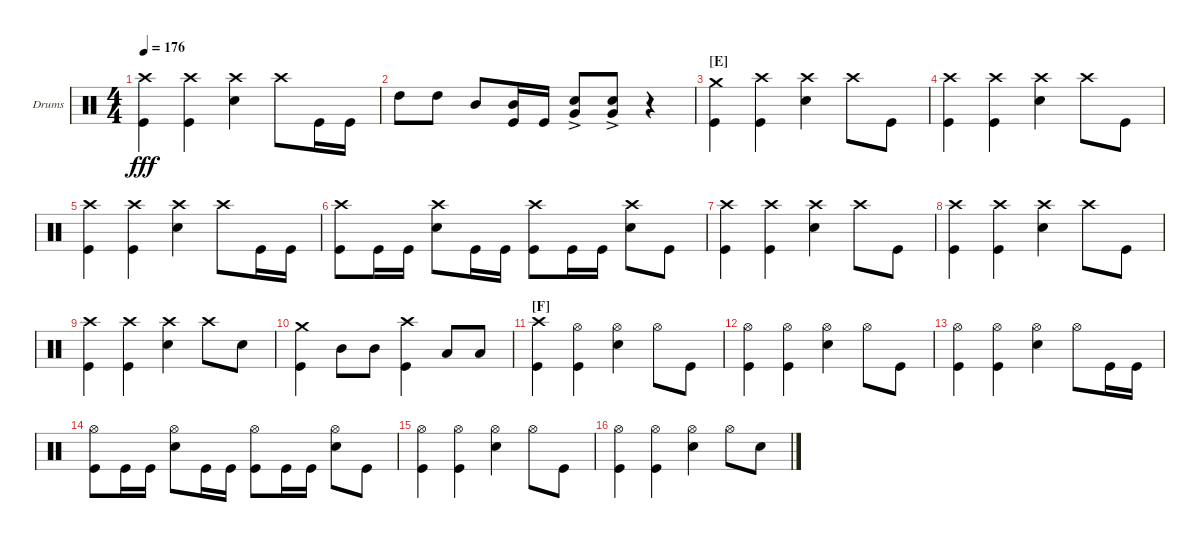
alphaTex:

\defaultSystemsLayout 4
\bracketExtendMode groupsimilarinstruments
\firstSystemTrackNameOrientation horizontal
\otherSystemsTrackNameOrientation horizontal
\track ("Drums" "Drums") {instrument percussion}
\staff {score}
\articulation defaults
\ts (4 4)
\tempo 176
\clef neutral
\ks c
("Kick (hit)" "Crash high (hit)").4{dy fff} ("Kick (hit)" "Crash high (hit)").4 ("Snare (hit) 2" "Crash high (hit)").4 "Crash high (hit)".8 "Kick (hit)".16 "Kick (hit)".16 |
"High Tom (hit)".8 "High Tom (hit)".8 "Mid Tom (hit)".8 ("Mid Tom (hit)" "Kick (hit)").16 "Kick (hit)".16 ("Very Low Tom (hit)"{ac} "Snare (hit) 2"{ac}).8 ("Very Low Tom (hit)"{ac} "Snare (hit) 2"{ac}).8 r.4 |
\section ("E" "")
("Kick (hit)" "Crash medium (hit)").4 ("Kick (hit)" "Crash high (hit)").4 ("Snare (hit) 2" "Crash high (hit)").4 "Crash high (hit)".8 "Kick (hit)".8 |
("Kick (hit)" "Crash high (hit)").4 ("Kick (hit)" "Crash high (hit)").4 ("Snare (hit) 2" "Crash high (hit)").4 "Crash high (hit)".8 "Kick (hit)".8 |
("Kick (hit)" "Crash high (hit)").4 ("Kick (hit)" "Crash high (hit)").4 ("Snare (hit) 2" "Crash high (hit)").4 "Crash high (hit)".8 "Kick (hit)".16 "Kick (hit)".16 |
("Crash high (hit)" "Kick (hit)").8 "Kick (hit)".16 "Kick (hit)".16 ("Snare (hit) 2" "Crash high (hit)").8 "Kick (hit)".16 "Kick (hit)".16 ("Crash high (hit)" "Kick (hit)").8 "Kick (hit)".16 "Kick (hit)".16 ("Snare (hit) 2" "Crash high (hit)").8 "Kick (hit)".8 |
("Kick (hit)" "Crash high (hit)").4 ("Kick (hit)" "Crash high (hit)").4 ("Snare (hit) 2" "Crash high (hit)").4 "Crash high (hit)".8 "Kick (hit)".8 |
("Kick (hit)" "Crash high (hit)").4 ("Kick (hit)" "Crash high (hit)").4 ("Snare (hit) 2" "Crash high (hit)").4 "Crash high (hit)".8 "Kick (hit)".8 |
("Kick (hit)" "Crash high (hit)").4 ("Kick (hit)" "Crash high (hit)").4 ("Snare (hit) 2" "Crash high (hit)").4 "Crash high (hit)".8 "Snare (hit) 2".8 |
("Kick (hit)" "Crash medium (hit)").4 "Mid Tom (hit)".8 "Mid Tom (hit)".8 ("Kick (hit)" "Crash high (hit)").4 "Low Tom (hit)".8 "Low Tom (hit)".8 |
\section ("F" "")
("Kick (hit)" "Crash high (hit)").4 ("Kick (hit)" "Hi-Hat (open)").4 ("Snare (hit) 2" "Hi-Hat (open)").4 "Hi-Hat (open)".8 "Kick (hit)".8 |
("Kick (hit)" "Hi-Hat (open)").4 ("Kick (hit)" "Hi-Hat (open)").4 ("Snare (hit) 2" "Hi-Hat (open)").4 "Hi-Hat (open)".8 "Kick (hit)".8 |
("Kick (hit)" "Hi-Hat (open)").4 ("Kick (hit)" "Hi-Hat (open)").4 ("Snare (hit) 2" "Hi-Hat (open)").4 "Hi-Hat (open)".8 "Kick (hit)".16 "Kick (hit)".16 |
("Kick (hit)" "Hi-Hat (open)").8 "Kick (hit)".16 "Kick (hit)".16 ("Snare (hit) 2" "Hi-Hat (open)").8 "Kick (hit)".16 "Kick (hit)".16 ("Kick (hit)" "Hi-Hat (open)").8 "Kick (hit)".16 "Kick (hit)".16 ("Snare (hit) 2" "Hi-Hat (open)").8 "Kick (hit)".8 |
("Kick (hit)" "Hi-Hat (open)").4 ("Kick (hit)" "Hi-Hat (open)").4 ("Snare (hit) 2" "Hi-Hat (open)").4 "Hi-Hat (open)".8 "Kick (hit)".8 |
("Kick (hit)" "Hi-Hat (open)").4 ("Kick (hit)" "Hi-Hat (open)").4 ("Snare (hit) 2" "Hi-Hat (open)").4 "Hi-Hat (open)".8 "Snare (hit) 2".8
